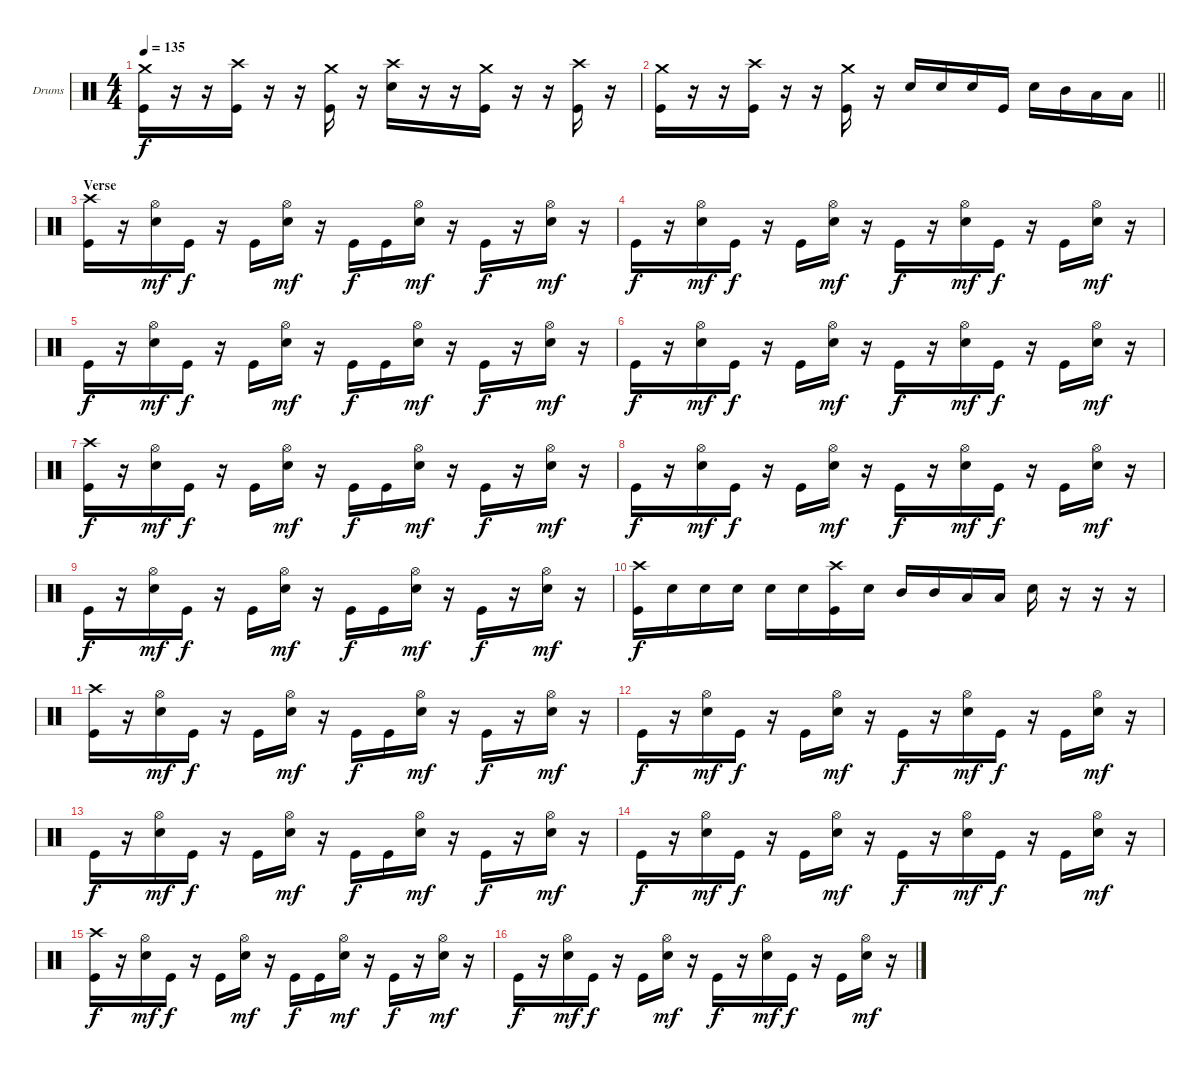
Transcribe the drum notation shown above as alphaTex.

\bracketExtendMode groupsimilarinstruments
\firstSystemTrackNameOrientation horizontal
\otherSystemsTrackNameOrientation horizontal
\track ("Drumkit" "Drums") {instrument percussion}
\staff {score}
\articulation defaults
\ts (4 4)
\tempo 135
\clef neutral
\ks c
("Crash medium (hit)" "Kick (hit)").16{dy f} r.16 r.16 ("Crash high (hit)" "Kick (hit)").16 r.16 r.16 ("Crash medium (hit)" "Kick (hit)").16 r.16 ("Crash high (hit)" "Snare (hit) 2").16 r.16 r.16 ("Crash medium (hit)" "Kick (hit)").16 r.16 r.16 ("Crash high (hit)" "Kick (hit)").16 r.16 |
\barLineRight lightlight
("Crash medium (hit)" "Kick (hit)").16 r.16 r.16 ("Crash high (hit)" "Kick (hit)").16 r.16 r.16 ("Crash medium (hit)" "Kick (hit)").16 r.16 "Snare (hit) 2".16 "Snare (hit) 2".16 "Snare (hit) 2".16 "Kick (hit)".16 "Snare (hit) 2".16 "Mid Tom (hit)".16 "Low Tom (hit)".16 "Low Tom (hit)".16 |
\section ("" "Verse ")
("Crash high (hit)" "Kick (hit)").16 r.16 ("Hi-Hat (open)" "Snare (hit) 2").16{dy mf} "Kick (hit)".16{dy f} r.16 "Kick (hit)".16 ("Hi-Hat (open)" "Snare (hit) 2").16{dy mf} r.16 "Kick (hit)".16{dy f} "Kick (hit)".16 ("Hi-Hat (open)" "Snare (hit) 2").16{dy mf} r.16 "Kick (hit)".16{dy f} r.16 ("Hi-Hat (open)" "Snare (hit) 2").16{dy mf} r.16 |
"Kick (hit)".16{dy f} r.16 ("Hi-Hat (open)" "Snare (hit) 2").16{dy mf} "Kick (hit)".16{dy f} r.16 "Kick (hit)".16 ("Hi-Hat (open)" "Snare (hit) 2").16{dy mf} r.16 "Kick (hit)".16{dy f} r.16 ("Hi-Hat (open)" "Snare (hit) 2").16{dy mf} "Kick (hit)".16{dy f} r.16 "Kick (hit)".16 ("Hi-Hat (open)" "Snare (hit) 2").16{dy mf} r.16 |
"Kick (hit)".16{dy f} r.16 ("Hi-Hat (open)" "Snare (hit) 2").16{dy mf} "Kick (hit)".16{dy f} r.16 "Kick (hit)".16 ("Hi-Hat (open)" "Snare (hit) 2").16{dy mf} r.16 "Kick (hit)".16{dy f} "Kick (hit)".16 ("Hi-Hat (open)" "Snare (hit) 2").16{dy mf} r.16 "Kick (hit)".16{dy f} r.16 ("Hi-Hat (open)" "Snare (hit) 2").16{dy mf} r.16 |
"Kick (hit)".16{dy f} r.16 ("Hi-Hat (open)" "Snare (hit) 2").16{dy mf} "Kick (hit)".16{dy f} r.16 "Kick (hit)".16 ("Hi-Hat (open)" "Snare (hit) 2").16{dy mf} r.16 "Kick (hit)".16{dy f} r.16 ("Hi-Hat (open)" "Snare (hit) 2").16{dy mf} "Kick (hit)".16{dy f} r.16 "Kick (hit)".16 ("Hi-Hat (open)" "Snare (hit) 2").16{dy mf} r.16 |
("Crash high (hit)" "Kick (hit)").16{dy f} r.16 ("Hi-Hat (open)" "Snare (hit) 2").16{dy mf} "Kick (hit)".16{dy f} r.16 "Kick (hit)".16 ("Hi-Hat (open)" "Snare (hit) 2").16{dy mf} r.16 "Kick (hit)".16{dy f} "Kick (hit)".16 ("Hi-Hat (open)" "Snare (hit) 2").16{dy mf} r.16 "Kick (hit)".16{dy f} r.16 ("Hi-Hat (open)" "Snare (hit) 2").16{dy mf} r.16 |
"Kick (hit)".16{dy f} r.16 ("Hi-Hat (open)" "Snare (hit) 2").16{dy mf} "Kick (hit)".16{dy f} r.16 "Kick (hit)".16 ("Hi-Hat (open)" "Snare (hit) 2").16{dy mf} r.16 "Kick (hit)".16{dy f} r.16 ("Hi-Hat (open)" "Snare (hit) 2").16{dy mf} "Kick (hit)".16{dy f} r.16 "Kick (hit)".16 ("Hi-Hat (open)" "Snare (hit) 2").16{dy mf} r.16 |
"Kick (hit)".16{dy f} r.16 ("Hi-Hat (open)" "Snare (hit) 2").16{dy mf} "Kick (hit)".16{dy f} r.16 "Kick (hit)".16 ("Hi-Hat (open)" "Snare (hit) 2").16{dy mf} r.16 "Kick (hit)".16{dy f} "Kick (hit)".16 ("Hi-Hat (open)" "Snare (hit) 2").16{dy mf} r.16 "Kick (hit)".16{dy f} r.16 ("Hi-Hat (open)" "Snare (hit) 2").16{dy mf} r.16 |
("Crash high (hit)" "Kick (hit)").16{dy f} "Snare (hit) 2".16 "Snare (hit) 2".16 "Snare (hit) 2".16 "Snare (hit) 2".16 "Snare (hit) 2".16 ("Crash high (hit)" "Kick (hit)").16 "Snare (hit) 2".16 "Mid Tom (hit)".16 "Mid Tom (hit)".16 "Low Tom (hit)".16 "Low Tom (hit)".16 "Snare (hit) 2".16 r.16 r.16 r.16 |
("Crash high (hit)" "Kick (hit)").16 r.16 ("Hi-Hat (open)" "Snare (hit) 2").16{dy mf} "Kick (hit)".16{dy f} r.16 "Kick (hit)".16 ("Hi-Hat (open)" "Snare (hit) 2").16{dy mf} r.16 "Kick (hit)".16{dy f} "Kick (hit)".16 ("Hi-Hat (open)" "Snare (hit) 2").16{dy mf} r.16 "Kick (hit)".16{dy f} r.16 ("Hi-Hat (open)" "Snare (hit) 2").16{dy mf} r.16 |
"Kick (hit)".16{dy f} r.16 ("Hi-Hat (open)" "Snare (hit) 2").16{dy mf} "Kick (hit)".16{dy f} r.16 "Kick (hit)".16 ("Hi-Hat (open)" "Snare (hit) 2").16{dy mf} r.16 "Kick (hit)".16{dy f} r.16 ("Hi-Hat (open)" "Snare (hit) 2").16{dy mf} "Kick (hit)".16{dy f} r.16 "Kick (hit)".16 ("Hi-Hat (open)" "Snare (hit) 2").16{dy mf} r.16 |
"Kick (hit)".16{dy f} r.16 ("Hi-Hat (open)" "Snare (hit) 2").16{dy mf} "Kick (hit)".16{dy f} r.16 "Kick (hit)".16 ("Hi-Hat (open)" "Snare (hit) 2").16{dy mf} r.16 "Kick (hit)".16{dy f} "Kick (hit)".16 ("Hi-Hat (open)" "Snare (hit) 2").16{dy mf} r.16 "Kick (hit)".16{dy f} r.16 ("Hi-Hat (open)" "Snare (hit) 2").16{dy mf} r.16 |
"Kick (hit)".16{dy f} r.16 ("Hi-Hat (open)" "Snare (hit) 2").16{dy mf} "Kick (hit)".16{dy f} r.16 "Kick (hit)".16 ("Hi-Hat (open)" "Snare (hit) 2").16{dy mf} r.16 "Kick (hit)".16{dy f} r.16 ("Hi-Hat (open)" "Snare (hit) 2").16{dy mf} "Kick (hit)".16{dy f} r.16 "Kick (hit)".16 ("Hi-Hat (open)" "Snare (hit) 2").16{dy mf} r.16 |
("Crash high (hit)" "Kick (hit)").16{dy f} r.16 ("Hi-Hat (open)" "Snare (hit) 2").16{dy mf} "Kick (hit)".16{dy f} r.16 "Kick (hit)".16 ("Hi-Hat (open)" "Snare (hit) 2").16{dy mf} r.16 "Kick (hit)".16{dy f} "Kick (hit)".16 ("Hi-Hat (open)" "Snare (hit) 2").16{dy mf} r.16 "Kick (hit)".16{dy f} r.16 ("Hi-Hat (open)" "Snare (hit) 2").16{dy mf} r.16 |
"Kick (hit)".16{dy f} r.16 ("Hi-Hat (open)" "Snare (hit) 2").16{dy mf} "Kick (hit)".16{dy f} r.16 "Kick (hit)".16 ("Hi-Hat (open)" "Snare (hit) 2").16{dy mf} r.16 "Kick (hit)".16{dy f} r.16 ("Hi-Hat (open)" "Snare (hit) 2").16{dy mf} "Kick (hit)".16{dy f} r.16 "Kick (hit)".16 ("Hi-Hat (open)" "Snare (hit) 2").16{dy mf} r.16
